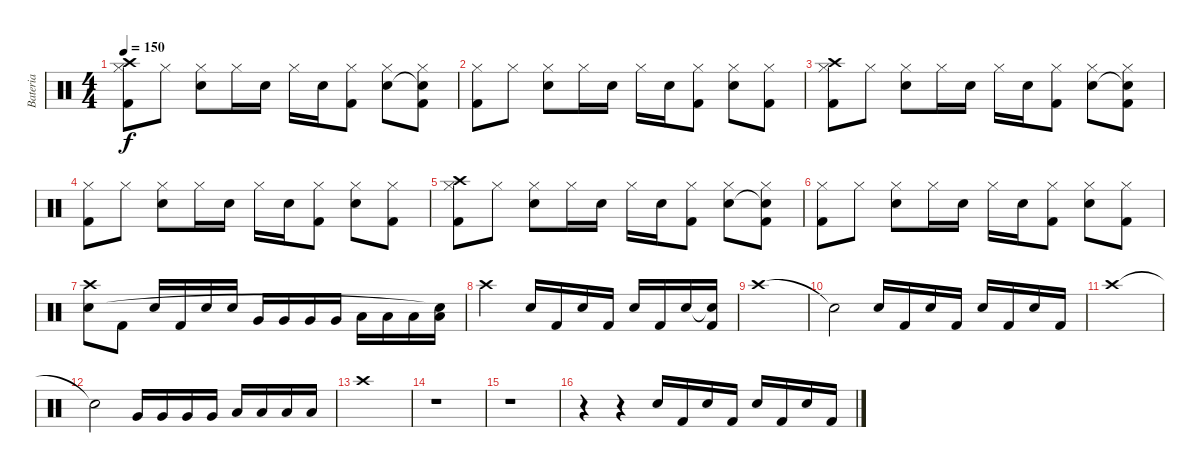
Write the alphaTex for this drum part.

\track ("Bateria" "Bateria") {instrument percussion}
\staff {score}
\articulation defaults
\ts (4 4)
\tempo 150
\clef neutral
\ks c
("Hi-Hat (closed)" "Crash high (hit)" "Kick (hit) 2").8{dy f} "Hi-Hat (closed)".8 ("Hi-Hat (closed)" "Snare (hit) 2").8 "Hi-Hat (closed)".16 "Snare (hit) 2".16 "Hi-Hat (closed)".16 "Snare (hit) 2".16 ("Hi-Hat (closed)" "Kick (hit) 2").8 ("Hi-Hat (closed)" "Snare (hit) 2").8 ("Hi-Hat (closed)" "Snare (hit)"{t} "Kick (hit) 2").8 |
("Hi-Hat (closed)" "Kick (hit) 2").8 "Hi-Hat (closed)".8 ("Hi-Hat (closed)" "Snare (hit) 2").8 "Hi-Hat (closed)".16 "Snare (hit) 2".16 "Hi-Hat (closed)".16 "Snare (hit) 2".16 ("Hi-Hat (closed)" "Kick (hit) 2").8 ("Hi-Hat (closed)" "Snare (hit) 2").8 ("Hi-Hat (closed)" "Kick (hit) 2").8 |
("Hi-Hat (closed)" "Crash high (hit)" "Kick (hit) 2").8 "Hi-Hat (closed)".8 ("Hi-Hat (closed)" "Snare (hit) 2").8 "Hi-Hat (closed)".16 "Snare (hit) 2".16 "Hi-Hat (closed)".16 "Snare (hit) 2".16 ("Hi-Hat (closed)" "Kick (hit) 2").8 ("Hi-Hat (closed)" "Snare (hit) 2").8 ("Hi-Hat (closed)" "Snare (hit)"{t} "Kick (hit) 2").8 |
("Hi-Hat (closed)" "Kick (hit) 2").8 "Hi-Hat (closed)".8 ("Hi-Hat (closed)" "Snare (hit) 2").8 "Hi-Hat (closed)".16 "Snare (hit) 2".16 "Hi-Hat (closed)".16 "Snare (hit) 2".16 ("Hi-Hat (closed)" "Kick (hit) 2").8 ("Hi-Hat (closed)" "Snare (hit) 2").8 ("Hi-Hat (closed)" "Kick (hit) 2").8 |
("Hi-Hat (closed)" "Crash high (hit)" "Kick (hit) 2").8 "Hi-Hat (closed)".8 ("Hi-Hat (closed)" "Snare (hit) 2").8 "Hi-Hat (closed)".16 "Snare (hit) 2".16 "Hi-Hat (closed)".16 "Snare (hit) 2".16 ("Hi-Hat (closed)" "Kick (hit) 2").8 ("Hi-Hat (closed)" "Snare (hit) 2").8 ("Hi-Hat (closed)" "Snare (hit)"{t} "Kick (hit) 2").8 |
("Hi-Hat (closed)" "Kick (hit) 2").8 "Hi-Hat (closed)".8 ("Hi-Hat (closed)" "Snare (hit) 2").8 "Hi-Hat (closed)".16 "Snare (hit) 2".16 "Hi-Hat (closed)".16 "Snare (hit) 2".16 ("Hi-Hat (closed)" "Kick (hit) 2").8 ("Hi-Hat (closed)" "Snare (hit) 2").8 ("Hi-Hat (closed)" "Kick (hit) 2").8 |
("Crash high (hit)" "Snare (hit) 2").8 "Kick (hit) 2".8 "Snare (hit) 2".16 "Kick (hit) 2".16 "Snare (hit) 2".16 "Snare (hit) 2".16 "Very Low Tom (hit)".16 "Very Low Tom (hit)".16 "Very Low Tom (hit)".16 "Very Low Tom (hit)".16 "Low Floor Tom (hit)".16 "Low Floor Tom (hit)".16 "Low Floor Tom (hit)".16 ("Low Floor Tom (hit)" "Snare (hit)"{t}).16 |
"Crash high (hit)".2 "Snare (hit) 2".16 "Kick (hit) 2".16 "Snare (hit) 2".16 "Kick (hit) 2".16 "Snare (hit) 2".16 "Kick (hit) 2".16 "Snare (hit) 2".16 ("Snare (hit)"{t} "Kick (hit) 2").16 |
"Crash high (hit)".1 |
"Snare (hit)"{t}.2 "Snare (hit) 2".16 "Kick (hit) 2".16 "Snare (hit) 2".16 "Kick (hit) 2".16 "Snare (hit) 2".16 "Kick (hit) 2".16 "Snare (hit) 2".16 "Kick (hit) 2".16 |
"Crash high (hit)".1 |
"Snare (hit)"{t}.2 "Very Low Tom (hit)".16 "Very Low Tom (hit)".16 "Very Low Tom (hit)".16 "Very Low Tom (hit)".16 "Low Floor Tom (hit)".16 "Low Floor Tom (hit)".16 "Low Floor Tom (hit)".16 "Low Floor Tom (hit)".16 |
"Crash high (hit)".1 |
r.1 |
r.1 |
r.4 r.4 "Snare (hit) 2".16 "Kick (hit) 2".16 "Snare (hit) 2".16 "Kick (hit) 2".16 "Snare (hit) 2".16 "Kick (hit) 2".16 "Snare (hit) 2".16 "Kick (hit) 2".16
